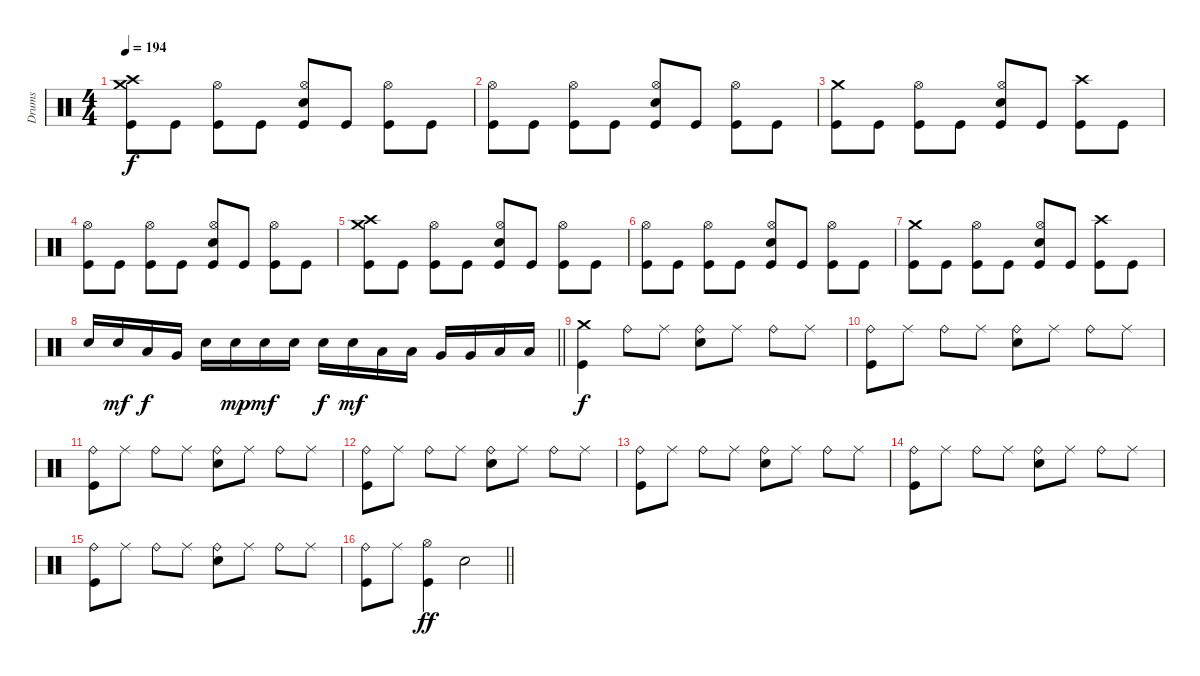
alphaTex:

\track ("Drums" "Drums") {instrument percussion}
\staff {score}
\articulation defaults
\ts (4 4)
\tempo 194
\clef neutral
\ks c
("Crash medium (hit)" "Crash high (hit)" "Kick (hit)").8{dy f} "Kick (hit)".8 ("Hi-Hat (open)" "Kick (hit)").8 "Kick (hit)".8 ("Hi-Hat (open)" "Snare (hit) 2" "Kick (hit)").8 "Kick (hit)".8 ("Hi-Hat (open)" "Kick (hit)").8 "Kick (hit)".8 |
("Hi-Hat (open)" "Kick (hit)").8 "Kick (hit)".8 ("Hi-Hat (open)" "Kick (hit)").8 "Kick (hit)".8 ("Hi-Hat (open)" "Snare (hit) 2" "Kick (hit)").8 "Kick (hit)".8 ("Hi-Hat (open)" "Kick (hit)").8 "Kick (hit)".8 |
("Crash medium (hit)" "Kick (hit)").8 "Kick (hit)".8 ("Hi-Hat (open)" "Kick (hit)").8 "Kick (hit)".8 ("Hi-Hat (open)" "Snare (hit) 2" "Kick (hit)").8 "Kick (hit)".8 ("Crash high (hit)" "Kick (hit)").8 "Kick (hit)".8 |
("Hi-Hat (open)" "Kick (hit)").8 "Kick (hit)".8 ("Hi-Hat (open)" "Kick (hit)").8 "Kick (hit)".8 ("Hi-Hat (open)" "Snare (hit) 2" "Kick (hit)").8 "Kick (hit)".8 ("Hi-Hat (open)" "Kick (hit)").8 "Kick (hit)".8 |
("Crash medium (hit)" "Crash high (hit)" "Kick (hit)").8 "Kick (hit)".8 ("Hi-Hat (open)" "Kick (hit)").8 "Kick (hit)".8 ("Hi-Hat (open)" "Snare (hit) 2" "Kick (hit)").8 "Kick (hit)".8 ("Hi-Hat (open)" "Kick (hit)").8 "Kick (hit)".8 |
("Hi-Hat (open)" "Kick (hit)").8 "Kick (hit)".8 ("Hi-Hat (open)" "Kick (hit)").8 "Kick (hit)".8 ("Hi-Hat (open)" "Snare (hit) 2" "Kick (hit)").8 "Kick (hit)".8 ("Hi-Hat (open)" "Kick (hit)").8 "Kick (hit)".8 |
("Crash medium (hit)" "Kick (hit)").8 "Kick (hit)".8 ("Hi-Hat (open)" "Kick (hit)").8 "Kick (hit)".8 ("Hi-Hat (open)" "Snare (hit) 2" "Kick (hit)").8 "Kick (hit)".8 ("Crash high (hit)" "Kick (hit)").8 "Kick (hit)".8 |
\barLineRight lightlight "Snare (hit) 2".16 "Snare (hit) 2".16{dy mf} "Low Tom (hit)".16{dy f} "Very Low Tom (hit)".16 "Snare (hit) 2".16 "Snare (hit) 2".16{dy mp} "Snare (hit) 2".16{dy mf} "Snare (hit) 2".16 "Snare (hit) 2".16{dy f} "Snare (hit) 2".16{dy mf} "Low Tom (hit)".16 "Low Tom (hit)".16 "Very Low Tom (hit)".16 "Very Low Tom (hit)".16 "Low Floor Tom (hit)".16 "Low Floor Tom (hit)".16
|
("Crash medium (hit)" "Kick (hit)").4{dy f} "Ride (bell)".8 "Ride (middle)".8 ("Ride (bell)" "Snare (hit) 2").8 "Ride (middle)".8 "Ride (bell)".8 "Ride (middle)".8 |
("Ride (bell)" "Kick (hit)").8 "Ride (middle)".8 "Ride (bell)".8 "Ride (middle)".8 ("Ride (bell)" "Snare (hit) 2").8 "Ride (middle)".8 "Ride (bell)".8 "Ride (middle)".8 |
("Ride (bell)" "Kick (hit)").8 "Ride (middle)".8 "Ride (bell)".8 "Ride (middle)".8 ("Ride (bell)" "Snare (hit) 2").8 "Ride (middle)".8 "Ride (bell)".8 "Ride (middle)".8 |
("Ride (bell)" "Kick (hit)").8 "Ride (middle)".8 "Ride (bell)".8 "Ride (middle)".8 ("Ride (bell)" "Snare (hit) 2").8 "Ride (middle)".8 "Ride (bell)".8 "Ride (middle)".8 |
("Ride (bell)" "Kick (hit)").8 "Ride (middle)".8 "Ride (bell)".8 "Ride (middle)".8 ("Ride (bell)" "Snare (hit) 2").8 "Ride (middle)".8 "Ride (bell)".8 "Ride (middle)".8 |
("Ride (bell)" "Kick (hit)").8 "Ride (middle)".8 "Ride (bell)".8 "Ride (middle)".8 ("Ride (bell)" "Snare (hit) 2").8 "Ride (middle)".8 "Ride (bell)".8 "Ride (middle)".8 |
("Ride (bell)" "Kick (hit)").8 "Ride (middle)".8 "Ride (bell)".8 "Ride (middle)".8 ("Ride (bell)" "Snare (hit) 2").8 "Ride (middle)".8 "Ride (bell)".8 "Ride (middle)".8 |
\barLineRight lightlight
("Ride (bell)" "Kick (hit)").8 "Ride (middle)".8 ("Hi-Hat (open)" "Kick (hit)").4{dy ff} "Snare (hit) 2".2
